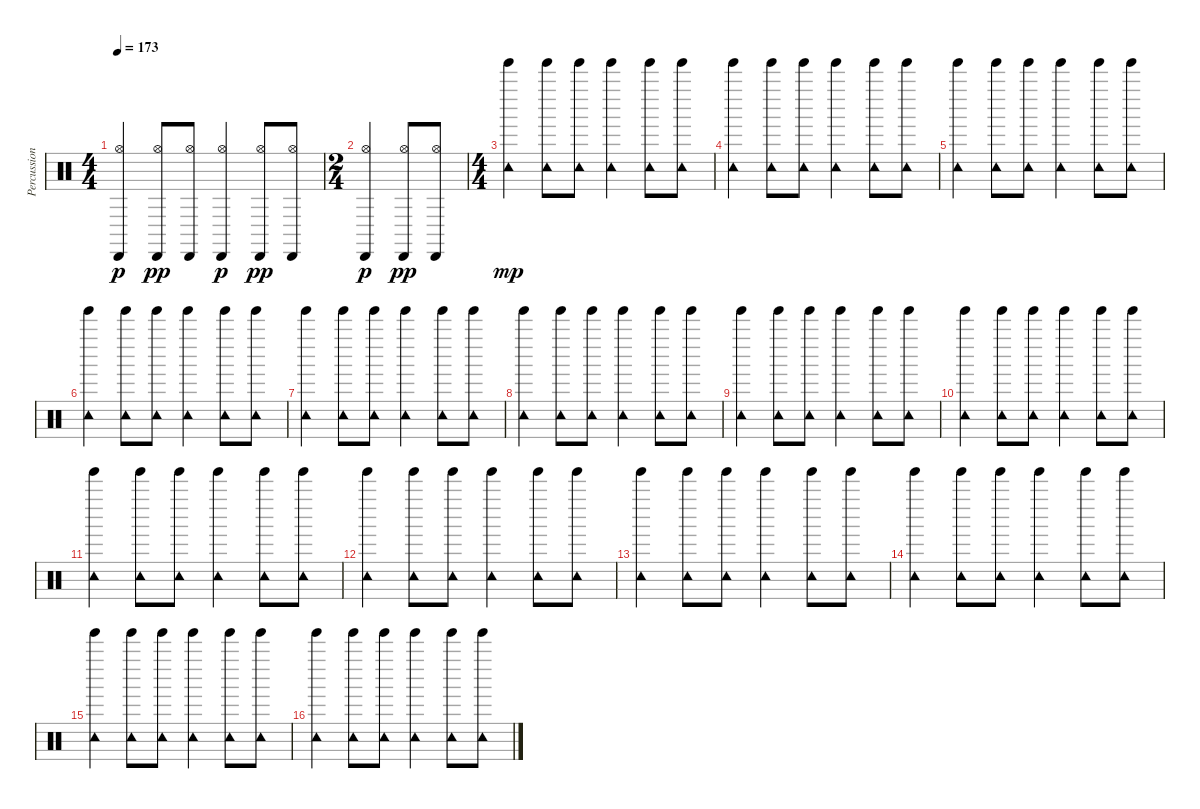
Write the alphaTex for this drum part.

\track ("Percussion" "Percussion") {instrument percussion}
\staff {score}
\articulation defaults
\ts (4 4)
\tempo 173
\clef neutral
\ks c
("Cabasa (hit)" "Hi-Hat (open)").4{dy p} ("Cabasa (hit)" "Hi-Hat (open)").8{dy pp} ("Cabasa (hit)" "Hi-Hat (open)").8 ("Cabasa (hit)" "Hi-Hat (open)").4{dy p} ("Cabasa (hit)" "Hi-Hat (open)").8{dy pp} ("Cabasa (hit)" "Hi-Hat (open)").8 |
\ts (2 4)
("Cabasa (hit)" "Hi-Hat (open)").4{dy p} ("Cabasa (hit)" "Hi-Hat (open)").8{dy pp} ("Cabasa (hit)" "Hi-Hat (open)").8 |
\ts (4 4)
("Tambourine (hit)" "Tinkle Bell (hit)").4{dy mp} ("Tambourine (hit)" "Tinkle Bell (hit)").8 ("Tambourine (hit)" "Tinkle Bell (hit)").8 ("Tambourine (hit)" "Tinkle Bell (hit)").4 ("Tambourine (hit)" "Tinkle Bell (hit)").8 ("Tambourine (hit)" "Tinkle Bell (hit)").8 |
("Tambourine (hit)" "Tinkle Bell (hit)").4 ("Tambourine (hit)" "Tinkle Bell (hit)").8 ("Tambourine (hit)" "Tinkle Bell (hit)").8 ("Tambourine (hit)" "Tinkle Bell (hit)").4 ("Tambourine (hit)" "Tinkle Bell (hit)").8 ("Tambourine (hit)" "Tinkle Bell (hit)").8 |
("Tambourine (hit)" "Tinkle Bell (hit)").4 ("Tambourine (hit)" "Tinkle Bell (hit)").8 ("Tambourine (hit)" "Tinkle Bell (hit)").8 ("Tambourine (hit)" "Tinkle Bell (hit)").4 ("Tambourine (hit)" "Tinkle Bell (hit)").8 ("Tambourine (hit)" "Tinkle Bell (hit)").8 |
("Tambourine (hit)" "Tinkle Bell (hit)").4 ("Tambourine (hit)" "Tinkle Bell (hit)").8 ("Tambourine (hit)" "Tinkle Bell (hit)").8 ("Tambourine (hit)" "Tinkle Bell (hit)").4 ("Tambourine (hit)" "Tinkle Bell (hit)").8 ("Tambourine (hit)" "Tinkle Bell (hit)").8 |
("Tambourine (hit)" "Tinkle Bell (hit)").4 ("Tambourine (hit)" "Tinkle Bell (hit)").8 ("Tambourine (hit)" "Tinkle Bell (hit)").8 ("Tambourine (hit)" "Tinkle Bell (hit)").4 ("Tambourine (hit)" "Tinkle Bell (hit)").8 ("Tambourine (hit)" "Tinkle Bell (hit)").8 |
("Tambourine (hit)" "Tinkle Bell (hit)").4 ("Tambourine (hit)" "Tinkle Bell (hit)").8 ("Tambourine (hit)" "Tinkle Bell (hit)").8 ("Tambourine (hit)" "Tinkle Bell (hit)").4 ("Tambourine (hit)" "Tinkle Bell (hit)").8 ("Tambourine (hit)" "Tinkle Bell (hit)").8 |
("Tambourine (hit)" "Tinkle Bell (hit)").4 ("Tambourine (hit)" "Tinkle Bell (hit)").8 ("Tambourine (hit)" "Tinkle Bell (hit)").8 ("Tambourine (hit)" "Tinkle Bell (hit)").4 ("Tambourine (hit)" "Tinkle Bell (hit)").8 ("Tambourine (hit)" "Tinkle Bell (hit)").8 |
("Tambourine (hit)" "Tinkle Bell (hit)").4 ("Tambourine (hit)" "Tinkle Bell (hit)").8 ("Tambourine (hit)" "Tinkle Bell (hit)").8 ("Tambourine (hit)" "Tinkle Bell (hit)").4 ("Tambourine (hit)" "Tinkle Bell (hit)").8 ("Tambourine (hit)" "Tinkle Bell (hit)").8 |
("Tambourine (hit)" "Tinkle Bell (hit)").4 ("Tambourine (hit)" "Tinkle Bell (hit)").8 ("Tambourine (hit)" "Tinkle Bell (hit)").8 ("Tambourine (hit)" "Tinkle Bell (hit)").4 ("Tambourine (hit)" "Tinkle Bell (hit)").8 ("Tambourine (hit)" "Tinkle Bell (hit)").8 |
("Tambourine (hit)" "Tinkle Bell (hit)").4 ("Tambourine (hit)" "Tinkle Bell (hit)").8 ("Tambourine (hit)" "Tinkle Bell (hit)").8 ("Tambourine (hit)" "Tinkle Bell (hit)").4 ("Tambourine (hit)" "Tinkle Bell (hit)").8 ("Tambourine (hit)" "Tinkle Bell (hit)").8 |
("Tambourine (hit)" "Tinkle Bell (hit)").4 ("Tambourine (hit)" "Tinkle Bell (hit)").8 ("Tambourine (hit)" "Tinkle Bell (hit)").8 ("Tambourine (hit)" "Tinkle Bell (hit)").4 ("Tambourine (hit)" "Tinkle Bell (hit)").8 ("Tambourine (hit)" "Tinkle Bell (hit)").8 |
("Tambourine (hit)" "Tinkle Bell (hit)").4 ("Tambourine (hit)" "Tinkle Bell (hit)").8 ("Tambourine (hit)" "Tinkle Bell (hit)").8 ("Tambourine (hit)" "Tinkle Bell (hit)").4 ("Tambourine (hit)" "Tinkle Bell (hit)").8 ("Tambourine (hit)" "Tinkle Bell (hit)").8 |
("Tambourine (hit)" "Tinkle Bell (hit)").4 ("Tambourine (hit)" "Tinkle Bell (hit)").8 ("Tambourine (hit)" "Tinkle Bell (hit)").8 ("Tambourine (hit)" "Tinkle Bell (hit)").4 ("Tambourine (hit)" "Tinkle Bell (hit)").8 ("Tambourine (hit)" "Tinkle Bell (hit)").8 |
("Tambourine (hit)" "Tinkle Bell (hit)").4 ("Tambourine (hit)" "Tinkle Bell (hit)").8 ("Tambourine (hit)" "Tinkle Bell (hit)").8 ("Tambourine (hit)" "Tinkle Bell (hit)").4 ("Tambourine (hit)" "Tinkle Bell (hit)").8 ("Tambourine (hit)" "Tinkle Bell (hit)").8
